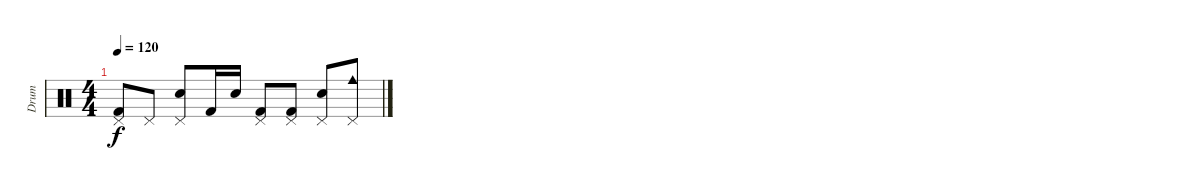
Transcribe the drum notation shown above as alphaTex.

\track ("Drum" "Drum") {instrument percussion}
\staff {score}
\articulation defaults
\ts (4 4)
\tempo 120
\clef neutral
\ks c
("Pedal Hi-Hat (hit)" "Kick (hit) 2").8{dy f} "Pedal Hi-Hat (hit)".8 ("Pedal Hi-Hat (hit)" "Snare (hit) 2").8 "Kick (hit) 2".16 "Snare (hit) 2".16 ("Pedal Hi-Hat (hit)" "Kick (hit) 2").8 ("Pedal Hi-Hat (hit)" "Kick (hit) 2").8 ("Pedal Hi-Hat (hit)" "Snare (hit) 2").8 ("Pedal Hi-Hat (hit)" "Cowbell medium (hit)").8
